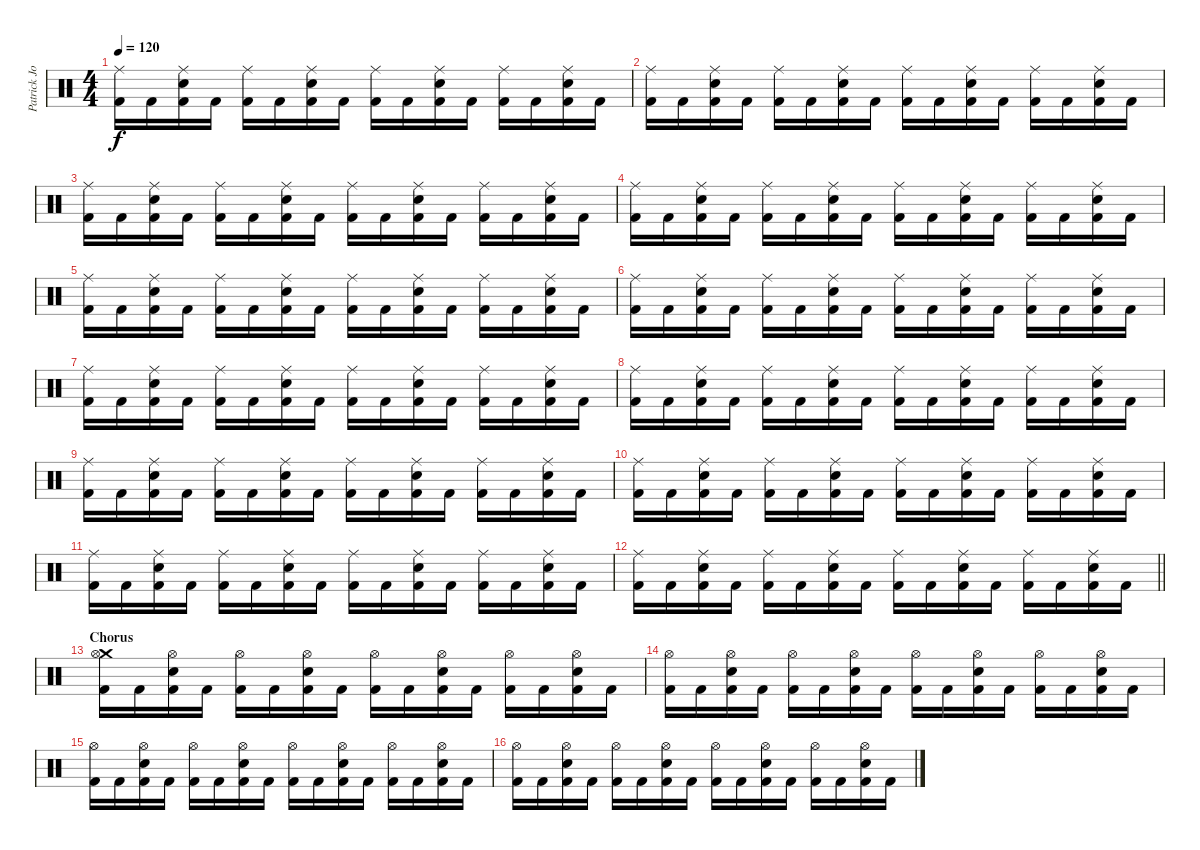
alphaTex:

\track ("Patrick Johansson" "Patrick Jo") {instrument percussion}
\staff {score}
\articulation defaults
\ts (4 4)
\tempo 120
\clef neutral
\ks c
("Ride (middle)" "Kick (hit) 2").16{dy f} "Kick (hit) 2".16 ("Ride (middle)" "Snare (hit) 2" "Kick (hit) 2").16 "Kick (hit) 2".16 ("Ride (middle)" "Kick (hit) 2").16 "Kick (hit) 2".16 ("Ride (middle)" "Snare (hit) 2" "Kick (hit) 2").16 "Kick (hit) 2".16 ("Ride (middle)" "Kick (hit) 2").16 "Kick (hit) 2".16 ("Ride (middle)" "Snare (hit) 2" "Kick (hit) 2").16 "Kick (hit) 2".16 ("Ride (middle)" "Kick (hit) 2").16 "Kick (hit) 2".16 ("Ride (middle)" "Snare (hit) 2" "Kick (hit) 2").16 "Kick (hit) 2".16 |
("Ride (middle)" "Kick (hit) 2").16 "Kick (hit) 2".16 ("Ride (middle)" "Snare (hit) 2" "Kick (hit) 2").16 "Kick (hit) 2".16 ("Ride (middle)" "Kick (hit) 2").16 "Kick (hit) 2".16 ("Ride (middle)" "Snare (hit) 2" "Kick (hit) 2").16 "Kick (hit) 2".16 ("Ride (middle)" "Kick (hit) 2").16 "Kick (hit) 2".16 ("Ride (middle)" "Snare (hit) 2" "Kick (hit) 2").16 "Kick (hit) 2".16 ("Ride (middle)" "Kick (hit) 2").16 "Kick (hit) 2".16 ("Ride (middle)" "Snare (hit) 2" "Kick (hit) 2").16 "Kick (hit) 2".16 |
("Ride (middle)" "Kick (hit) 2").16 "Kick (hit) 2".16 ("Ride (middle)" "Snare (hit) 2" "Kick (hit) 2").16 "Kick (hit) 2".16 ("Ride (middle)" "Kick (hit) 2").16 "Kick (hit) 2".16 ("Ride (middle)" "Snare (hit) 2" "Kick (hit) 2").16 "Kick (hit) 2".16 ("Ride (middle)" "Kick (hit) 2").16 "Kick (hit) 2".16 ("Ride (middle)" "Snare (hit) 2" "Kick (hit) 2").16 "Kick (hit) 2".16 ("Ride (middle)" "Kick (hit) 2").16 "Kick (hit) 2".16 ("Ride (middle)" "Snare (hit) 2" "Kick (hit) 2").16 "Kick (hit) 2".16 |
("Ride (middle)" "Kick (hit) 2").16 "Kick (hit) 2".16 ("Ride (middle)" "Snare (hit) 2" "Kick (hit) 2").16 "Kick (hit) 2".16 ("Ride (middle)" "Kick (hit) 2").16 "Kick (hit) 2".16 ("Ride (middle)" "Snare (hit) 2" "Kick (hit) 2").16 "Kick (hit) 2".16 ("Ride (middle)" "Kick (hit) 2").16 "Kick (hit) 2".16 ("Ride (middle)" "Snare (hit) 2" "Kick (hit) 2").16 "Kick (hit) 2".16 ("Ride (middle)" "Kick (hit) 2").16 "Kick (hit) 2".16 ("Ride (middle)" "Snare (hit) 2" "Kick (hit) 2").16 "Kick (hit) 2".16 |
("Ride (middle)" "Kick (hit) 2").16 "Kick (hit) 2".16 ("Ride (middle)" "Snare (hit) 2" "Kick (hit) 2").16 "Kick (hit) 2".16 ("Ride (middle)" "Kick (hit) 2").16 "Kick (hit) 2".16 ("Ride (middle)" "Snare (hit) 2" "Kick (hit) 2").16 "Kick (hit) 2".16 ("Ride (middle)" "Kick (hit) 2").16 "Kick (hit) 2".16 ("Ride (middle)" "Snare (hit) 2" "Kick (hit) 2").16 "Kick (hit) 2".16 ("Ride (middle)" "Kick (hit) 2").16 "Kick (hit) 2".16 ("Ride (middle)" "Snare (hit) 2" "Kick (hit) 2").16 "Kick (hit) 2".16 |
("Ride (middle)" "Kick (hit) 2").16 "Kick (hit) 2".16 ("Ride (middle)" "Snare (hit) 2" "Kick (hit) 2").16 "Kick (hit) 2".16 ("Ride (middle)" "Kick (hit) 2").16 "Kick (hit) 2".16 ("Ride (middle)" "Snare (hit) 2" "Kick (hit) 2").16 "Kick (hit) 2".16 ("Ride (middle)" "Kick (hit) 2").16 "Kick (hit) 2".16 ("Ride (middle)" "Snare (hit) 2" "Kick (hit) 2").16 "Kick (hit) 2".16 ("Ride (middle)" "Kick (hit) 2").16 "Kick (hit) 2".16 ("Ride (middle)" "Snare (hit) 2" "Kick (hit) 2").16 "Kick (hit) 2".16 |
("Ride (middle)" "Kick (hit) 2").16 "Kick (hit) 2".16 ("Ride (middle)" "Snare (hit) 2" "Kick (hit) 2").16 "Kick (hit) 2".16 ("Ride (middle)" "Kick (hit) 2").16 "Kick (hit) 2".16 ("Ride (middle)" "Snare (hit) 2" "Kick (hit) 2").16 "Kick (hit) 2".16 ("Ride (middle)" "Kick (hit) 2").16 "Kick (hit) 2".16 ("Ride (middle)" "Snare (hit) 2" "Kick (hit) 2").16 "Kick (hit) 2".16 ("Ride (middle)" "Kick (hit) 2").16 "Kick (hit) 2".16 ("Ride (middle)" "Snare (hit) 2" "Kick (hit) 2").16 "Kick (hit) 2".16 |
("Ride (middle)" "Kick (hit) 2").16 "Kick (hit) 2".16 ("Ride (middle)" "Snare (hit) 2" "Kick (hit) 2").16 "Kick (hit) 2".16 ("Ride (middle)" "Kick (hit) 2").16 "Kick (hit) 2".16 ("Ride (middle)" "Snare (hit) 2" "Kick (hit) 2").16 "Kick (hit) 2".16 ("Ride (middle)" "Kick (hit) 2").16 "Kick (hit) 2".16 ("Ride (middle)" "Snare (hit) 2" "Kick (hit) 2").16 "Kick (hit) 2".16 ("Ride (middle)" "Kick (hit) 2").16 "Kick (hit) 2".16 ("Ride (middle)" "Snare (hit) 2" "Kick (hit) 2").16 "Kick (hit) 2".16 |
("Ride (middle)" "Kick (hit) 2").16 "Kick (hit) 2".16 ("Ride (middle)" "Snare (hit) 2" "Kick (hit) 2").16 "Kick (hit) 2".16 ("Ride (middle)" "Kick (hit) 2").16 "Kick (hit) 2".16 ("Ride (middle)" "Snare (hit) 2" "Kick (hit) 2").16 "Kick (hit) 2".16 ("Ride (middle)" "Kick (hit) 2").16 "Kick (hit) 2".16 ("Ride (middle)" "Snare (hit) 2" "Kick (hit) 2").16 "Kick (hit) 2".16 ("Ride (middle)" "Kick (hit) 2").16 "Kick (hit) 2".16 ("Ride (middle)" "Snare (hit) 2" "Kick (hit) 2").16 "Kick (hit) 2".16 |
("Ride (middle)" "Kick (hit) 2").16 "Kick (hit) 2".16 ("Ride (middle)" "Snare (hit) 2" "Kick (hit) 2").16 "Kick (hit) 2".16 ("Ride (middle)" "Kick (hit) 2").16 "Kick (hit) 2".16 ("Ride (middle)" "Snare (hit) 2" "Kick (hit) 2").16 "Kick (hit) 2".16 ("Ride (middle)" "Kick (hit) 2").16 "Kick (hit) 2".16 ("Ride (middle)" "Snare (hit) 2" "Kick (hit) 2").16 "Kick (hit) 2".16 ("Ride (middle)" "Kick (hit) 2").16 "Kick (hit) 2".16 ("Ride (middle)" "Snare (hit) 2" "Kick (hit) 2").16 "Kick (hit) 2".16 |
("Ride (middle)" "Kick (hit) 2").16 "Kick (hit) 2".16 ("Ride (middle)" "Snare (hit) 2" "Kick (hit) 2").16 "Kick (hit) 2".16 ("Ride (middle)" "Kick (hit) 2").16 "Kick (hit) 2".16 ("Ride (middle)" "Snare (hit) 2" "Kick (hit) 2").16 "Kick (hit) 2".16 ("Ride (middle)" "Kick (hit) 2").16 "Kick (hit) 2".16 ("Ride (middle)" "Snare (hit) 2" "Kick (hit) 2").16 "Kick (hit) 2".16 ("Ride (middle)" "Kick (hit) 2").16 "Kick (hit) 2".16 ("Ride (middle)" "Snare (hit) 2" "Kick (hit) 2").16 "Kick (hit) 2".16 |
\barLineRight lightlight
("Ride (middle)" "Kick (hit) 2").16 "Kick (hit) 2".16 ("Ride (middle)" "Snare (hit) 2" "Kick (hit) 2").16 "Kick (hit) 2".16 ("Ride (middle)" "Kick (hit) 2").16 "Kick (hit) 2".16 ("Ride (middle)" "Snare (hit) 2" "Kick (hit) 2").16 "Kick (hit) 2".16 ("Ride (middle)" "Kick (hit) 2").16 "Kick (hit) 2".16 ("Ride (middle)" "Snare (hit) 2" "Kick (hit) 2").16 "Kick (hit) 2".16 ("Ride (middle)" "Kick (hit) 2").16 "Kick (hit) 2".16 ("Ride (middle)" "Snare (hit) 2" "Kick (hit) 2").16 "Kick (hit) 2".16 |
\section ("" "Chorus")
("Crash medium (hit)" "Hi-Hat (open)" "Kick (hit) 2").16 "Kick (hit) 2".16 ("Hi-Hat (open)" "Snare (hit) 2" "Kick (hit) 2").16 "Kick (hit) 2".16 ("Hi-Hat (open)" "Kick (hit) 2").16 "Kick (hit) 2".16 ("Hi-Hat (open)" "Snare (hit) 2" "Kick (hit) 2").16 "Kick (hit) 2".16 ("Hi-Hat (open)" "Kick (hit) 2").16 "Kick (hit) 2".16 ("Hi-Hat (open)" "Snare (hit) 2" "Kick (hit) 2").16 "Kick (hit) 2".16 ("Hi-Hat (open)" "Kick (hit) 2").16 "Kick (hit) 2".16 ("Hi-Hat (open)" "Snare (hit) 2" "Kick (hit) 2").16 "Kick (hit) 2".16 |
("Hi-Hat (open)" "Kick (hit) 2").16 "Kick (hit) 2".16 ("Hi-Hat (open)" "Snare (hit) 2" "Kick (hit) 2").16 "Kick (hit) 2".16 ("Hi-Hat (open)" "Kick (hit) 2").16 "Kick (hit) 2".16 ("Hi-Hat (open)" "Snare (hit) 2" "Kick (hit) 2").16 "Kick (hit) 2".16 ("Hi-Hat (open)" "Kick (hit) 2").16 "Kick (hit) 2".16 ("Hi-Hat (open)" "Snare (hit) 2" "Kick (hit) 2").16 "Kick (hit) 2".16 ("Hi-Hat (open)" "Kick (hit) 2").16 "Kick (hit) 2".16 ("Hi-Hat (open)" "Snare (hit) 2" "Kick (hit) 2").16 "Kick (hit) 2".16 |
("Hi-Hat (open)" "Kick (hit) 2").16 "Kick (hit) 2".16 ("Hi-Hat (open)" "Snare (hit) 2" "Kick (hit) 2").16 "Kick (hit) 2".16 ("Hi-Hat (open)" "Kick (hit) 2").16 "Kick (hit) 2".16 ("Hi-Hat (open)" "Snare (hit) 2" "Kick (hit) 2").16 "Kick (hit) 2".16 ("Hi-Hat (open)" "Kick (hit) 2").16 "Kick (hit) 2".16 ("Hi-Hat (open)" "Snare (hit) 2" "Kick (hit) 2").16 "Kick (hit) 2".16 ("Hi-Hat (open)" "Kick (hit) 2").16 "Kick (hit) 2".16 ("Hi-Hat (open)" "Snare (hit) 2" "Kick (hit) 2").16 "Kick (hit) 2".16 |
("Hi-Hat (open)" "Kick (hit) 2").16 "Kick (hit) 2".16 ("Hi-Hat (open)" "Snare (hit) 2" "Kick (hit) 2").16 "Kick (hit) 2".16 ("Hi-Hat (open)" "Kick (hit) 2").16 "Kick (hit) 2".16 ("Hi-Hat (open)" "Snare (hit) 2" "Kick (hit) 2").16 "Kick (hit) 2".16 ("Hi-Hat (open)" "Kick (hit) 2").16 "Kick (hit) 2".16 ("Hi-Hat (open)" "Snare (hit) 2" "Kick (hit) 2").16 "Kick (hit) 2".16 ("Hi-Hat (open)" "Kick (hit) 2").16 "Kick (hit) 2".16 ("Hi-Hat (open)" "Snare (hit) 2" "Kick (hit) 2").16 "Kick (hit) 2".16
